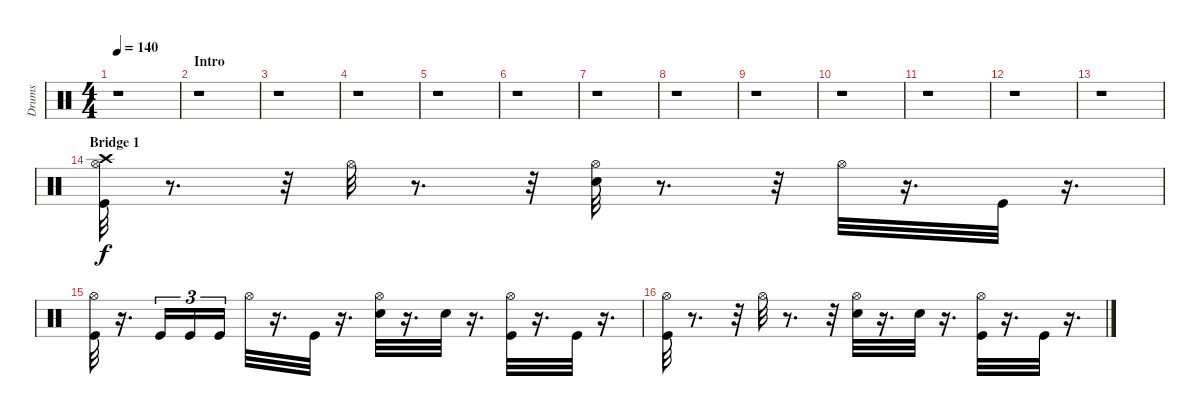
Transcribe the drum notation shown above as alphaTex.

\track ("Drums" "Drums") {instrument percussion}
\staff {score}
\articulation defaults
\ts (4 4)
\tempo 140
\clef neutral
\ks c
r.1{dy f} |
\section ("" "Intro")
r.1 |
r.1 |
r.1 |
r.1 |
r.1 |
r.1 |
r.1 |
r.1 |
r.1 |
r.1 |
r.1 |
r.1 |
\section ("" "Bridge 1")
("Hi-Hat (open)" "Crash high (hit)" "Kick (hit)").32 r.8{d} r.32 "Hi-Hat (open)".32 r.8{d} r.32 ("Hi-Hat (open)" "Electric Snare (hit)").32 r.8{d} r.32 "Hi-Hat (open)".32 r.16{d} "Kick (hit)".32 r.16{d} |
("Hi-Hat (open)" "Kick (hit)").32 r.16{d} "Kick (hit)".16{tu (3 2)} "Kick (hit)".16{tu (3 2)} "Kick (hit)".16{tu (3 2)} "Hi-Hat (open)".32 r.16{d} "Kick (hit)".32 r.16{d} ("Hi-Hat (open)" "Electric Snare (hit)").32 r.16{d} "Electric Snare (hit)".32 r.16{d} ("Hi-Hat (open)" "Kick (hit)").32 r.16{d} "Kick (hit)".32 r.16{d} |
("Hi-Hat (open)" "Kick (hit)").32 r.8{d} r.32 "Hi-Hat (open)".32 r.8{d} r.32 ("Hi-Hat (open)" "Electric Snare (hit)").32 r.16{d} "Electric Snare (hit)".32 r.16{d} ("Hi-Hat (open)" "Kick (hit)").32 r.16{d} "Kick (hit)".32 r.16{d}
